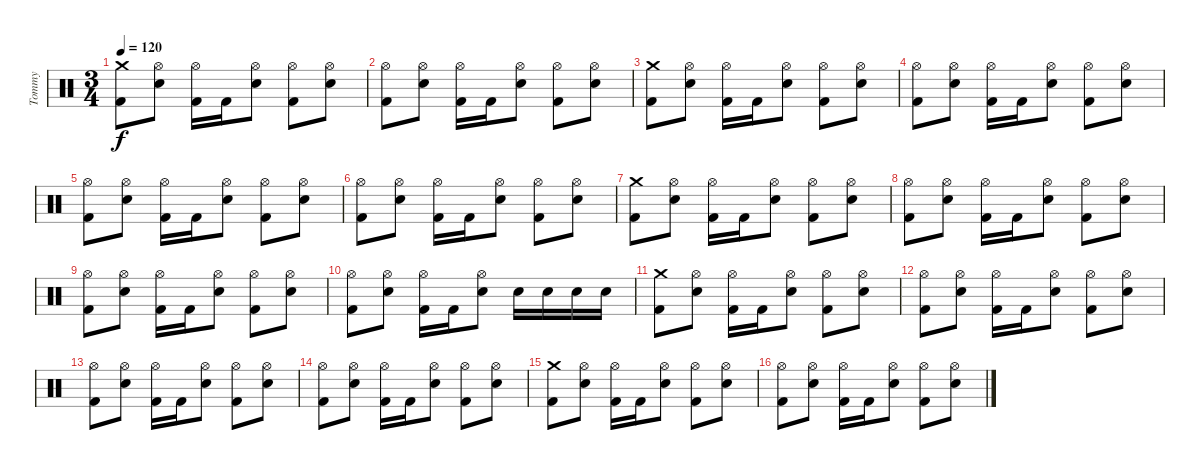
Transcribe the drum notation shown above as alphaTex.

\track ("Tommy" "Tommy") {instrument percussion}
\staff {score}
\articulation defaults
\ts (3 4)
\tempo 120
\clef neutral
\ks c
("Crash medium (hit)" "Kick (hit) 2").8{dy f} ("Hi-Hat (open)" "Electric Snare (hit)").8 ("Hi-Hat (open)" "Kick (hit) 2").16 "Kick (hit) 2".16 ("Hi-Hat (open)" "Electric Snare (hit)").8 ("Hi-Hat (open)" "Kick (hit) 2").8 ("Hi-Hat (open)" "Electric Snare (hit)").8 |
("Hi-Hat (open)" "Kick (hit) 2").8 ("Hi-Hat (open)" "Electric Snare (hit)").8 ("Hi-Hat (open)" "Kick (hit) 2").16 "Kick (hit) 2".16 ("Hi-Hat (open)" "Electric Snare (hit)").8 ("Hi-Hat (open)" "Kick (hit) 2").8 ("Hi-Hat (open)" "Electric Snare (hit)").8 |
("Crash medium (hit)" "Kick (hit) 2").8 ("Hi-Hat (open)" "Electric Snare (hit)").8 ("Hi-Hat (open)" "Kick (hit) 2").16 "Kick (hit) 2".16 ("Hi-Hat (open)" "Electric Snare (hit)").8 ("Hi-Hat (open)" "Kick (hit) 2").8 ("Hi-Hat (open)" "Electric Snare (hit)").8 |
("Hi-Hat (open)" "Kick (hit) 2").8 ("Hi-Hat (open)" "Electric Snare (hit)").8 ("Hi-Hat (open)" "Kick (hit) 2").16 "Kick (hit) 2".16 ("Hi-Hat (open)" "Electric Snare (hit)").8 ("Hi-Hat (open)" "Kick (hit) 2").8 ("Hi-Hat (open)" "Electric Snare (hit)").8 |
("Hi-Hat (open)" "Kick (hit) 2").8 ("Hi-Hat (open)" "Electric Snare (hit)").8 ("Hi-Hat (open)" "Kick (hit) 2").16 "Kick (hit) 2".16 ("Hi-Hat (open)" "Electric Snare (hit)").8 ("Hi-Hat (open)" "Kick (hit) 2").8 ("Hi-Hat (open)" "Electric Snare (hit)").8 |
("Hi-Hat (open)" "Kick (hit) 2").8 ("Hi-Hat (open)" "Electric Snare (hit)").8 ("Hi-Hat (open)" "Kick (hit) 2").16 "Kick (hit) 2".16 ("Hi-Hat (open)" "Electric Snare (hit)").8 ("Hi-Hat (open)" "Kick (hit) 2").8 ("Hi-Hat (open)" "Electric Snare (hit)").8 |
("Crash medium (hit)" "Kick (hit) 2").8 ("Hi-Hat (open)" "Electric Snare (hit)").8 ("Hi-Hat (open)" "Kick (hit) 2").16 "Kick (hit) 2".16 ("Hi-Hat (open)" "Electric Snare (hit)").8 ("Hi-Hat (open)" "Kick (hit) 2").8 ("Hi-Hat (open)" "Electric Snare (hit)").8 |
("Hi-Hat (open)" "Kick (hit) 2").8 ("Hi-Hat (open)" "Electric Snare (hit)").8 ("Hi-Hat (open)" "Kick (hit) 2").16 "Kick (hit) 2".16 ("Hi-Hat (open)" "Electric Snare (hit)").8 ("Hi-Hat (open)" "Kick (hit) 2").8 ("Hi-Hat (open)" "Electric Snare (hit)").8 |
("Hi-Hat (open)" "Kick (hit) 2").8 ("Hi-Hat (open)" "Electric Snare (hit)").8 ("Hi-Hat (open)" "Kick (hit) 2").16 "Kick (hit) 2".16 ("Hi-Hat (open)" "Electric Snare (hit)").8 ("Hi-Hat (open)" "Kick (hit) 2").8 ("Hi-Hat (open)" "Electric Snare (hit)").8 |
("Hi-Hat (open)" "Kick (hit) 2").8 ("Hi-Hat (open)" "Electric Snare (hit)").8 ("Hi-Hat (open)" "Kick (hit) 2").16 "Kick (hit) 2".16 ("Hi-Hat (open)" "Electric Snare (hit)").8 "Electric Snare (hit)".16 "Electric Snare (hit)".16 "Electric Snare (hit)".16 "Electric Snare (hit)".16 |
("Crash medium (hit)" "Kick (hit) 2").8 ("Hi-Hat (open)" "Electric Snare (hit)").8 ("Hi-Hat (open)" "Kick (hit) 2").16 "Kick (hit) 2".16 ("Hi-Hat (open)" "Electric Snare (hit)").8 ("Hi-Hat (open)" "Kick (hit) 2").8 ("Hi-Hat (open)" "Electric Snare (hit)").8 |
("Hi-Hat (open)" "Kick (hit) 2").8 ("Hi-Hat (open)" "Electric Snare (hit)").8 ("Hi-Hat (open)" "Kick (hit) 2").16 "Kick (hit) 2".16 ("Hi-Hat (open)" "Electric Snare (hit)").8 ("Hi-Hat (open)" "Kick (hit) 2").8 ("Hi-Hat (open)" "Electric Snare (hit)").8 |
("Hi-Hat (open)" "Kick (hit) 2").8 ("Hi-Hat (open)" "Electric Snare (hit)").8 ("Hi-Hat (open)" "Kick (hit) 2").16 "Kick (hit) 2".16 ("Hi-Hat (open)" "Electric Snare (hit)").8 ("Hi-Hat (open)" "Kick (hit) 2").8 ("Hi-Hat (open)" "Electric Snare (hit)").8 |
("Hi-Hat (open)" "Kick (hit) 2").8 ("Hi-Hat (open)" "Electric Snare (hit)").8 ("Hi-Hat (open)" "Kick (hit) 2").16 "Kick (hit) 2".16 ("Hi-Hat (open)" "Electric Snare (hit)").8 ("Hi-Hat (open)" "Kick (hit) 2").8 ("Hi-Hat (open)" "Electric Snare (hit)").8 |
("Crash medium (hit)" "Kick (hit) 2").8 ("Hi-Hat (open)" "Electric Snare (hit)").8 ("Hi-Hat (open)" "Kick (hit) 2").16 "Kick (hit) 2".16 ("Hi-Hat (open)" "Electric Snare (hit)").8 ("Hi-Hat (open)" "Kick (hit) 2").8 ("Hi-Hat (open)" "Electric Snare (hit)").8 |
("Hi-Hat (open)" "Kick (hit) 2").8 ("Hi-Hat (open)" "Electric Snare (hit)").8 ("Hi-Hat (open)" "Kick (hit) 2").16 "Kick (hit) 2".16 ("Hi-Hat (open)" "Electric Snare (hit)").8 ("Hi-Hat (open)" "Kick (hit) 2").8 ("Hi-Hat (open)" "Electric Snare (hit)").8
